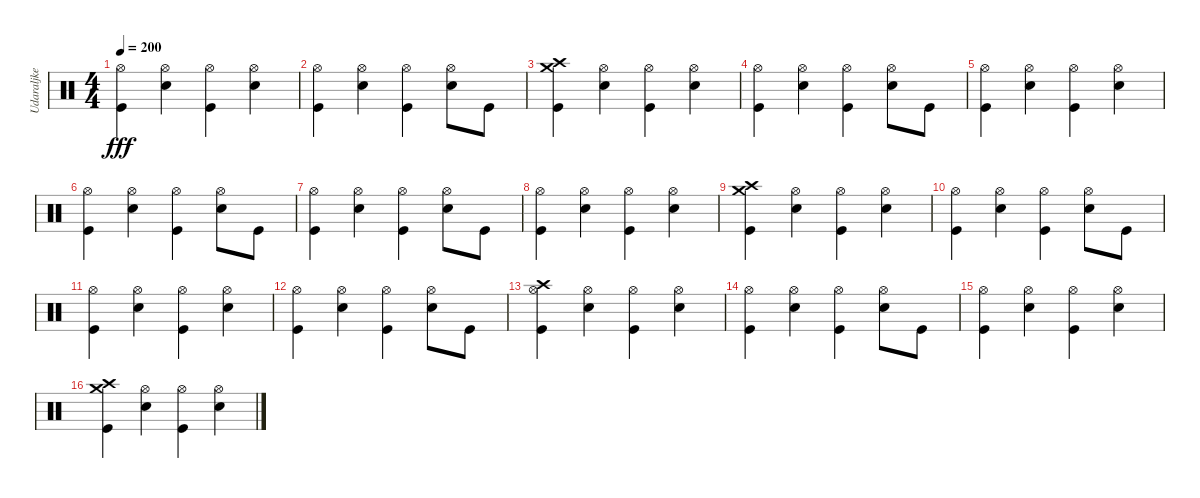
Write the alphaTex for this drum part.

\track ("Udaraljke" "Udaraljke") {instrument percussion}
\staff {score}
\articulation defaults
\ts (4 4)
\tempo 200
\clef neutral
\ks c
("Hi-Hat (open)" "Kick (hit)").4{dy fff} ("Hi-Hat (open)" "Electric Snare (hit)").4 ("Hi-Hat (open)" "Kick (hit)").4 ("Hi-Hat (open)" "Electric Snare (hit)").4 |
("Hi-Hat (open)" "Kick (hit)").4 ("Hi-Hat (open)" "Electric Snare (hit)").4 ("Hi-Hat (open)" "Kick (hit)").4 ("Hi-Hat (open)" "Electric Snare (hit)").8 "Kick (hit)".8 |
("Crash high (hit)" "Crash medium (hit)" "Kick (hit)").4 ("Hi-Hat (open)" "Electric Snare (hit)").4 ("Hi-Hat (open)" "Kick (hit)").4 ("Hi-Hat (open)" "Electric Snare (hit)").4 |
("Hi-Hat (open)" "Kick (hit)").4 ("Hi-Hat (open)" "Electric Snare (hit)").4 ("Hi-Hat (open)" "Kick (hit)").4 ("Hi-Hat (open)" "Electric Snare (hit)").8 "Kick (hit)".8 |
("Hi-Hat (open)" "Kick (hit)").4 ("Hi-Hat (open)" "Electric Snare (hit)").4 ("Hi-Hat (open)" "Kick (hit)").4 ("Hi-Hat (open)" "Electric Snare (hit)").4 |
("Hi-Hat (open)" "Kick (hit)").4 ("Hi-Hat (open)" "Electric Snare (hit)").4 ("Hi-Hat (open)" "Kick (hit)").4 ("Hi-Hat (open)" "Electric Snare (hit)").8 "Kick (hit)".8 |
("Hi-Hat (open)" "Kick (hit)").4 ("Hi-Hat (open)" "Electric Snare (hit)").4 ("Hi-Hat (open)" "Kick (hit)").4 ("Hi-Hat (open)" "Electric Snare (hit)").8 "Kick (hit)".8 |
("Hi-Hat (open)" "Kick (hit)").4 ("Hi-Hat (open)" "Electric Snare (hit)").4 ("Hi-Hat (open)" "Kick (hit)").4 ("Hi-Hat (open)" "Electric Snare (hit)").4 |
("Crash high (hit)" "Crash medium (hit)" "Kick (hit)").4 ("Hi-Hat (open)" "Electric Snare (hit)").4 ("Hi-Hat (open)" "Kick (hit)").4 ("Hi-Hat (open)" "Electric Snare (hit)").4 |
("Hi-Hat (open)" "Kick (hit)").4 ("Hi-Hat (open)" "Electric Snare (hit)").4 ("Hi-Hat (open)" "Kick (hit)").4 ("Hi-Hat (open)" "Electric Snare (hit)").8 "Kick (hit)".8 |
("Hi-Hat (open)" "Kick (hit)").4 ("Hi-Hat (open)" "Electric Snare (hit)").4 ("Hi-Hat (open)" "Kick (hit)").4 ("Hi-Hat (open)" "Electric Snare (hit)").4 |
("Hi-Hat (open)" "Kick (hit)").4 ("Hi-Hat (open)" "Electric Snare (hit)").4 ("Hi-Hat (open)" "Kick (hit)").4 ("Hi-Hat (open)" "Electric Snare (hit)").8 "Kick (hit)".8 |
("Crash high (hit)" "Hi-Hat (open)" "Kick (hit)").4 ("Hi-Hat (open)" "Electric Snare (hit)").4 ("Hi-Hat (open)" "Kick (hit)").4 ("Hi-Hat (open)" "Electric Snare (hit)").4 |
("Hi-Hat (open)" "Kick (hit)").4 ("Hi-Hat (open)" "Electric Snare (hit)").4 ("Hi-Hat (open)" "Kick (hit)").4 ("Hi-Hat (open)" "Electric Snare (hit)").8 "Kick (hit)".8 |
("Hi-Hat (open)" "Kick (hit)").4 ("Hi-Hat (open)" "Electric Snare (hit)").4 ("Hi-Hat (open)" "Kick (hit)").4 ("Hi-Hat (open)" "Electric Snare (hit)").4 |
("Crash high (hit)" "Crash medium (hit)" "Kick (hit)").4 ("Hi-Hat (open)" "Electric Snare (hit)").4 ("Hi-Hat (open)" "Kick (hit)").4 ("Hi-Hat (open)" "Electric Snare (hit)").4
